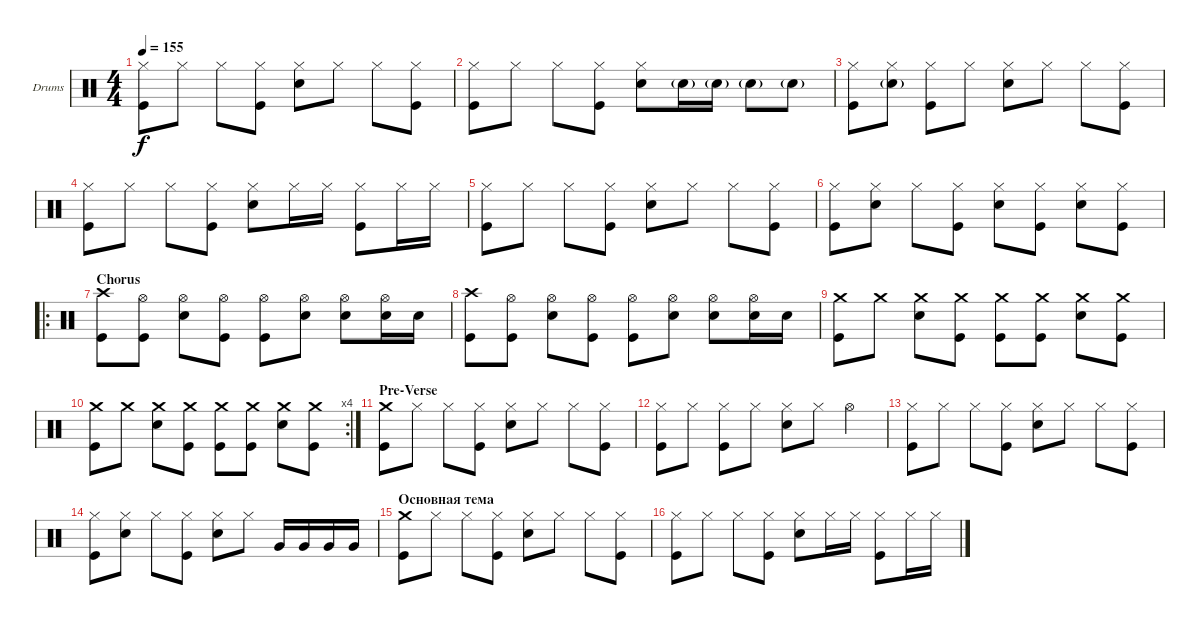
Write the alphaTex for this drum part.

\bracketExtendMode groupsimilarinstruments
\firstSystemTrackNameOrientation horizontal
\otherSystemsTrackNameOrientation horizontal
\track ("Drumkit" "Drums") {instrument percussion}
\staff {score}
\articulation defaults
\ts (4 4)
\tempo 155
\clef neutral
\ks c
("Kick (hit)" "Hi-Hat (closed)").8{dy f} "Hi-Hat (closed)".8 "Hi-Hat (closed)".8 ("Kick (hit)" "Hi-Hat (closed)").8 ("Snare (hit) 2" "Hi-Hat (closed)").8 "Hi-Hat (closed)".8 "Hi-Hat (closed)".8 ("Kick (hit)" "Hi-Hat (closed)").8 |
("Kick (hit)" "Hi-Hat (closed)").8 "Hi-Hat (closed)".8 "Hi-Hat (closed)".8 ("Kick (hit)" "Hi-Hat (closed)").8 ("Hi-Hat (closed)" "Snare (hit) 2").8 "Snare (hit) 2"{g}.16 "Snare (hit) 2"{g}.16 "Snare (hit) 2"{g}.8 "Snare (hit) 2"{g}.8 |
("Kick (hit)" "Hi-Hat (closed)").8 ("Snare (hit) 2"{g} "Hi-Hat (closed)").8 ("Kick (hit)" "Hi-Hat (closed)").8 "Hi-Hat (closed)".8 ("Snare (hit) 2" "Hi-Hat (closed)").8 "Hi-Hat (closed)".8 "Hi-Hat (closed)".8 ("Kick (hit)" "Hi-Hat (closed)").8 |
("Kick (hit)" "Hi-Hat (closed)").8 "Hi-Hat (closed)".8 "Hi-Hat (closed)".8 ("Hi-Hat (closed)" "Kick (hit)").8 ("Snare (hit) 2" "Hi-Hat (closed)").8 "Hi-Hat (closed)".16 "Hi-Hat (closed)".16 ("Hi-Hat (closed)" "Kick (hit)").8 "Hi-Hat (closed)".16 "Hi-Hat (closed)".16 |
("Kick (hit)" "Hi-Hat (closed)").8 "Hi-Hat (closed)".8 "Hi-Hat (closed)".8 ("Kick (hit)" "Hi-Hat (closed)").8 ("Snare (hit) 2" "Hi-Hat (closed)").8 "Hi-Hat (closed)".8 "Hi-Hat (closed)".8 ("Kick (hit)" "Hi-Hat (closed)").8 |
("Kick (hit)" "Hi-Hat (closed)").8 ("Hi-Hat (closed)" "Snare (hit) 2").8 "Hi-Hat (closed)".8 ("Kick (hit)" "Hi-Hat (closed)").8 ("Snare (hit) 2" "Hi-Hat (closed)").8 ("Kick (hit)" "Hi-Hat (closed)").8 ("Snare (hit) 2" "Hi-Hat (closed)").8 ("Hi-Hat (closed)" "Kick (hit)").8 |
\ro
\section ("" "Chorus")
("Kick (hit)" "Crash high (hit)").8 ("Hi-Hat (open)" "Kick (hit)").8 ("Hi-Hat (open)" "Snare (hit) 2").8 ("Hi-Hat (open)" "Kick (hit)").8 ("Hi-Hat (open)" "Kick (hit)").8 ("Hi-Hat (open)" "Snare (hit) 2").8 ("Hi-Hat (open)" "Snare (hit) 2").8 ("Hi-Hat (open)" "Snare (hit) 2").16 "Snare (hit) 2".16 |
("Kick (hit)" "Crash high (hit)").8 ("Hi-Hat (open)" "Kick (hit)").8 ("Hi-Hat (open)" "Snare (hit) 2").8 ("Hi-Hat (open)" "Kick (hit)").8 ("Hi-Hat (open)" "Kick (hit)").8 ("Hi-Hat (open)" "Snare (hit) 2").8 ("Hi-Hat (open)" "Snare (hit) 2").8 ("Hi-Hat (open)" "Snare (hit) 2").16 "Snare (hit) 2".16 |
("Crash medium (hit)" "Kick (hit)").8 "Crash medium (hit)".8 ("Snare (hit) 2" "Crash medium (hit)").8 ("Kick (hit)" "Crash medium (hit)").8 ("Kick (hit)" "Crash medium (hit)").8 ("Crash medium (hit)" "Kick (hit)").8 ("Snare (hit) 2" "Crash medium (hit)").8 ("Crash medium (hit)" "Kick (hit)").8 |
\rc 4
("Crash medium (hit)" "Kick (hit)").8 "Crash medium (hit)".8 ("Snare (hit) 2" "Crash medium (hit)").8 ("Kick (hit)" "Crash medium (hit)").8 ("Kick (hit)" "Crash medium (hit)").8 ("Crash medium (hit)" "Kick (hit)").8 ("Snare (hit) 2" "Crash medium (hit)").8 ("Crash medium (hit)" "Kick (hit)").8 |
\section ("" "Pre-Verse")
("Crash medium (hit)" "Kick (hit)").8 "Hi-Hat (closed)".8 "Hi-Hat (closed)".8 ("Kick (hit)" "Hi-Hat (closed)").8 ("Snare (hit) 2" "Hi-Hat (closed)").8 "Hi-Hat (closed)".8 "Hi-Hat (closed)".8 ("Kick (hit)" "Hi-Hat (closed)").8 |
("Kick (hit)" "Hi-Hat (closed)").8 "Hi-Hat (closed)".8 ("Kick (hit)" "Hi-Hat (closed)").8 "Hi-Hat (closed)".8 ("Snare (hit) 2" "Hi-Hat (closed)").8 "Hi-Hat (closed)".8 "Hi-Hat (open)".4 |
("Kick (hit)" "Hi-Hat (closed)").8 "Hi-Hat (closed)".8 "Hi-Hat (closed)".8 ("Kick (hit)" "Hi-Hat (closed)").8 ("Snare (hit) 2" "Hi-Hat (closed)").8 "Hi-Hat (closed)".8 "Hi-Hat (closed)".8 ("Kick (hit)" "Hi-Hat (closed)").8 |
("Kick (hit)" "Hi-Hat (closed)").8 ("Snare (hit) 2" "Hi-Hat (closed)").8 "Hi-Hat (closed)".8 ("Kick (hit)" "Hi-Hat (closed)").8 ("Snare (hit) 2" "Hi-Hat (closed)").8 "Hi-Hat (closed)".8 "Very Low Tom (hit)".16 "Very Low Tom (hit)".16 "Very Low Tom (hit)".16 "Very Low Tom (hit)".16 |
\section ("" "Основная тема")
("Kick (hit)" "Crash medium (hit)").8 "Hi-Hat (closed)".8 "Hi-Hat (closed)".8 ("Kick (hit)" "Hi-Hat (closed)").8 ("Snare (hit) 2" "Hi-Hat (closed)").8 "Hi-Hat (closed)".8 "Hi-Hat (closed)".8 ("Kick (hit)" "Hi-Hat (closed)").8 |
("Kick (hit)" "Hi-Hat (closed)").8 "Hi-Hat (closed)".8 "Hi-Hat (closed)".8 ("Hi-Hat (closed)" "Kick (hit)").8 ("Snare (hit) 2" "Hi-Hat (closed)").8 "Hi-Hat (closed)".16 "Hi-Hat (closed)".16 ("Hi-Hat (closed)" "Kick (hit)").8 "Hi-Hat (closed)".16 "Hi-Hat (closed)".16
